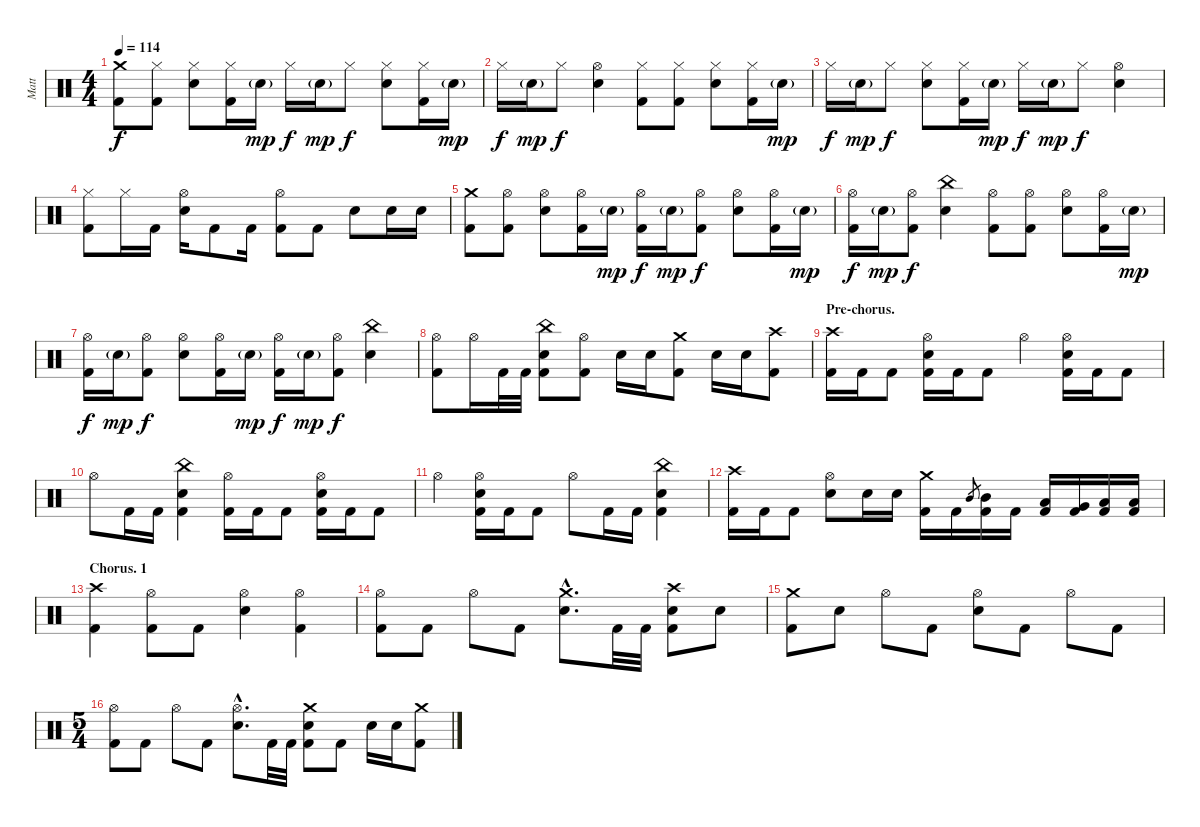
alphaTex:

\track ("Matt" "Matt") {instrument percussion}
\staff {score}
\articulation defaults
\ts (4 4)
\tempo 114
\clef neutral
\ks c
("Crash medium (hit)" "Kick (hit) 2").8{dy f} ("Hi-Hat (closed)" "Kick (hit) 2").8 ("Hi-Hat (closed)" "Electric Snare (hit)").8 ("Hi-Hat (closed)" "Kick (hit) 2").16 "Electric Snare (hit)"{g}.16{dy mp} "Hi-Hat (closed)".16{dy f} "Electric Snare (hit)"{g}.16{dy mp} "Hi-Hat (closed)".8{dy f} ("Hi-Hat (closed)" "Electric Snare (hit)").8 ("Hi-Hat (closed)" "Kick (hit) 2").16 "Electric Snare (hit)"{g}.16{dy mp} |
"Hi-Hat (closed)".16{dy f} "Electric Snare (hit)"{g}.16{dy mp} "Hi-Hat (closed)".8{dy f} ("Hi-Hat (open)" "Electric Snare (hit)").4 ("Hi-Hat (closed)" "Kick (hit) 2").8 ("Hi-Hat (closed)" "Kick (hit) 2").8 ("Hi-Hat (closed)" "Electric Snare (hit)").8 ("Hi-Hat (closed)" "Kick (hit) 2").16 "Electric Snare (hit)"{g}.16{dy mp} |
"Hi-Hat (closed)".16{dy f} "Electric Snare (hit)"{g}.16{dy mp} "Hi-Hat (closed)".8{dy f} ("Hi-Hat (closed)" "Electric Snare (hit)").8 ("Hi-Hat (closed)" "Kick (hit) 2").16 "Electric Snare (hit)"{g}.16{dy mp} "Hi-Hat (closed)".16{dy f} "Electric Snare (hit)"{g}.16{dy mp} "Hi-Hat (closed)".8{dy f} ("Hi-Hat (open)" "Electric Snare (hit)").4 |
("Hi-Hat (closed)" "Kick (hit) 2").8 "Hi-Hat (closed)".16 "Kick (hit) 2".16 ("Hi-Hat (open)" "Electric Snare (hit)").16 "Kick (hit) 2".8 "Kick (hit) 2".16 ("Hi-Hat (open)" "Kick (hit) 2").8 "Kick (hit) 2".8 "Electric Snare (hit)".8 "Electric Snare (hit)".16 "Electric Snare (hit)".16 |
("Crash medium (hit)" "Kick (hit) 2").8 ("Hi-Hat (open)" "Kick (hit) 2").8 ("Hi-Hat (open)" "Electric Snare (hit)").8 ("Hi-Hat (open)" "Kick (hit) 2").16 "Electric Snare (hit)"{g}.16{dy mp} ("Hi-Hat (open)" "Kick (hit) 2").16{dy f} "Electric Snare (hit)"{g}.16{dy mp} ("Hi-Hat (open)" "Kick (hit) 2").8{dy f} ("Hi-Hat (open)" "Electric Snare (hit)").8 ("Hi-Hat (open)" "Kick (hit) 2").16 "Electric Snare (hit)"{g}.16{dy mp} |
("Hi-Hat (open)" "Kick (hit) 2").16{dy f} "Electric Snare (hit)"{g}.16{dy mp} ("Hi-Hat (open)" "Kick (hit) 2").8{dy f} ("China (hit)" "Electric Snare (hit)").4 ("Hi-Hat (open)" "Kick (hit) 2").8 ("Hi-Hat (open)" "Kick (hit) 2").8 ("Hi-Hat (open)" "Electric Snare (hit)").8 ("Hi-Hat (open)" "Kick (hit) 2").16 "Electric Snare (hit)"{g}.16{dy mp} |
("Hi-Hat (open)" "Kick (hit) 2").16{dy f} "Electric Snare (hit)"{g}.16{dy mp} ("Hi-Hat (open)" "Kick (hit) 2").8{dy f} ("Hi-Hat (open)" "Electric Snare (hit)").8 ("Hi-Hat (open)" "Kick (hit) 2").16 "Electric Snare (hit)"{g}.16{dy mp} ("Hi-Hat (open)" "Kick (hit) 2").16{dy f} "Electric Snare (hit)"{g}.16{dy mp} ("Hi-Hat (open)" "Kick (hit) 2").8{dy f} ("China (hit)" "Electric Snare (hit)").4 |
("Hi-Hat (open)" "Kick (hit) 2").8 "Hi-Hat (open)".16 "Kick (hit) 2".32 "Kick (hit) 2".32 ("China (hit)" "Electric Snare (hit)" "Kick (hit) 2").8 ("Hi-Hat (open)" "Kick (hit) 2").8 "Electric Snare (hit)".16 "Electric Snare (hit)".16 ("Crash medium (hit)" "Kick (hit) 2").8 "Electric Snare (hit)".16 "Electric Snare (hit)".16 ("Crash high (hit)" "Kick (hit) 2").8 |
\section ("" "Pre-chorus.")
("Crash high (hit)" "Kick (hit) 2").16 "Kick (hit) 2".16 "Kick (hit) 2".8 ("Hi-Hat (open)" "Electric Snare (hit)" "Kick (hit) 2").16 "Kick (hit) 2".16 "Kick (hit) 2".8 "Hi-Hat (open)".4 ("Hi-Hat (open)" "Electric Snare (hit)" "Kick (hit) 2").16 "Kick (hit) 2".16 "Kick (hit) 2".8 |
"Hi-Hat (open)".8 "Kick (hit) 2".16 "Kick (hit) 2".16 ("China (hit)" "Electric Snare (hit)" "Kick (hit) 2").4 ("Hi-Hat (open)" "Kick (hit) 2").16 "Kick (hit) 2".16 "Kick (hit) 2".8 ("Hi-Hat (open)" "Electric Snare (hit)" "Kick (hit) 2").16 "Kick (hit) 2".16 "Kick (hit) 2".8 |
"Hi-Hat (open)".4 ("Hi-Hat (open)" "Electric Snare (hit)" "Kick (hit) 2").16 "Kick (hit) 2".16 "Kick (hit) 2".8 "Hi-Hat (open)".8 "Kick (hit) 2".16 "Kick (hit) 2".16 ("China (hit)" "Electric Snare (hit)" "Kick (hit) 2").4 |
("Crash high (hit)" "Kick (hit) 2").16 "Kick (hit) 2".16 "Kick (hit) 2".8 ("Hi-Hat (open)" "Electric Snare (hit)").8 "Electric Snare (hit)".16 "Electric Snare (hit)".16 ("Crash medium (hit)" "Kick (hit) 2").16 "Kick (hit) 2".16 "Mid Tom (hit)".8{gr} ("Mid Tom (hit)" "Kick (hit) 2").16 "Kick (hit) 2".16 ("Low Tom (hit)" "Kick (hit) 2").16 ("Very Low Tom (hit)" "Kick (hit) 2").16 ("Low Floor Tom (hit)" "Kick (hit) 2").16 ("Low Floor Tom (hit)" "Kick (hit) 2").16 |
\section ("" "Chorus. 1")
("Crash high (hit)" "Kick (hit) 2").4 ("Hi-Hat (open)" "Kick (hit) 2").8 "Kick (hit) 2".8 ("Hi-Hat (open)" "Electric Snare (hit)").4 ("Hi-Hat (open)" "Kick (hit) 2").4 |
("Hi-Hat (open)" "Kick (hit) 2").8 "Kick (hit) 2".8 "Hi-Hat (open)".8 "Kick (hit) 2".8 ("Crash medium (hit)"{hac} "Electric Snare (hit)"{hac}).8{d} "Kick (hit) 2".32 "Kick (hit) 2".32 ("Crash high (hit)" "Electric Snare (hit)" "Kick (hit) 2").8 "Electric Snare (hit)".8 |
("Crash medium (hit)" "Kick (hit) 2").8 "Electric Snare (hit)".8 "Hi-Hat (open)".8 "Kick (hit) 2".8 ("Hi-Hat (open)" "Electric Snare (hit)").8 "Kick (hit) 2".8 "Hi-Hat (open)".8 "Kick (hit) 2".8 |
\ts (5 4)
("Hi-Hat (open)" "Kick (hit) 2").8 "Kick (hit) 2".8 "Hi-Hat (open)".8 "Kick (hit) 2".8 ("Hi-Hat (open)"{hac} "Electric Snare (hit)"{hac}).8{d} "Kick (hit) 2".32 "Kick (hit) 2".32 ("Crash medium (hit)" "Electric Snare (hit)" "Kick (hit) 2").8 "Kick (hit) 2".8 "Electric Snare (hit)".16 "Electric Snare (hit)".16 ("Crash medium (hit)" "Kick (hit) 2").8
